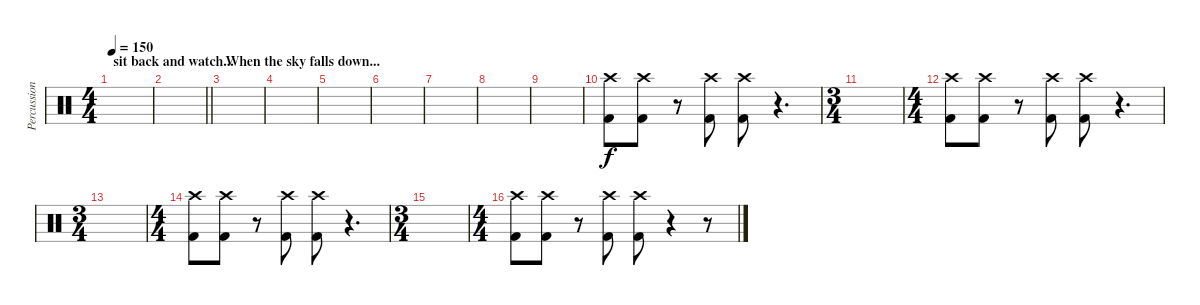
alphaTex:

\track ("Percussion" "Percussion") {instrument percussion}
\staff {score}
\articulation defaults
\ts (4 4)
\section ("" "sit back and watch...")
\tempo 150
\clef neutral
\ks c
|
\barLineRight lightlight
|
\section ("" "When the sky falls down...")
|
|
|
|
|
|
|
("Crash high (hit)" "Kick (hit) 2").8 ("Crash high (hit)" "Kick (hit) 2").8 r.8 ("Crash high (hit)" "Kick (hit) 2").8 ("Crash high (hit)" "Kick (hit) 2").8 r.4{d} |
\ts (3 4)
|
\ts (4 4)
("Crash high (hit)" "Kick (hit) 2").8 ("Crash high (hit)" "Kick (hit) 2").8 r.8 ("Crash high (hit)" "Kick (hit) 2").8 ("Crash high (hit)" "Kick (hit) 2").8 r.4{d} |
\ts (3 4)
|
\ts (4 4)
("Crash high (hit)" "Kick (hit) 2").8 ("Crash high (hit)" "Kick (hit) 2").8 r.8 ("Crash high (hit)" "Kick (hit) 2").8 ("Crash high (hit)" "Kick (hit) 2").8 r.4{d} |
\ts (3 4)
|
\ts (4 4)
("Crash high (hit)" "Kick (hit) 2").8 ("Crash high (hit)" "Kick (hit) 2").8 r.8 ("Crash high (hit)" "Kick (hit) 2").8 ("Crash high (hit)" "Kick (hit) 2").8 r.4 r.8
